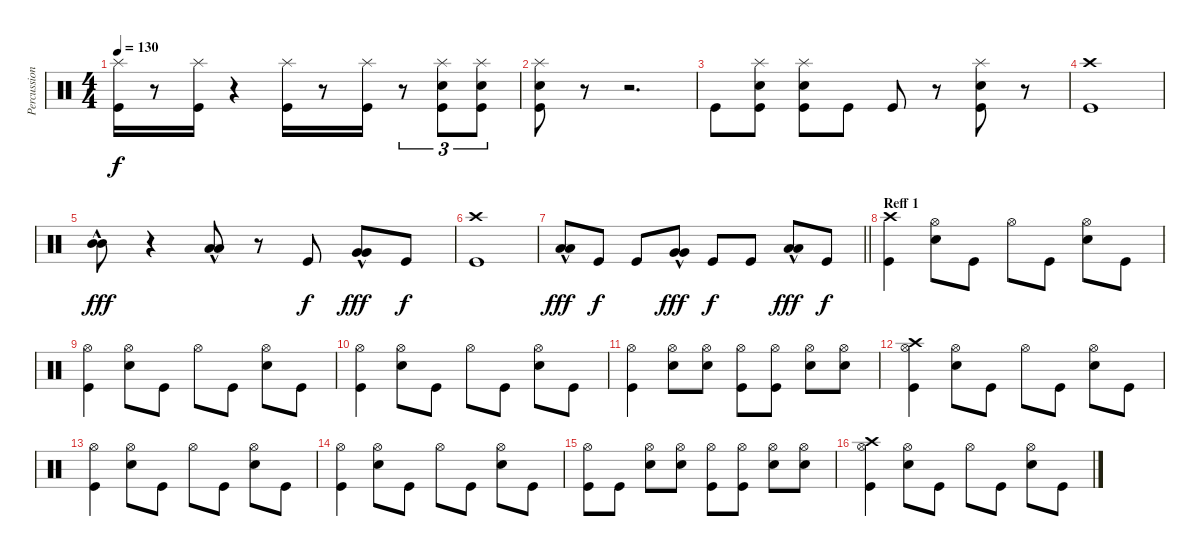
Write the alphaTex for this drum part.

\track ("Percussion 1" "Percussion") {instrument percussion}
\staff {score}
\articulation defaults
\ts (4 4)
\tempo 130
\clef neutral
\ks c
("Splash (hit)" "Kick (hit)").16{dy f} r.8 ("Splash (hit)" "Kick (hit)").16 r.4 ("Splash (hit)" "Kick (hit)").16 r.8 ("Splash (hit)" "Kick (hit)").16 r.8{tu (3 2)} ("Splash (hit)" "Electric Snare (hit)" "Kick (hit)").8{tu (3 2)} ("Splash (hit)" "Electric Snare (hit)" "Kick (hit)").8{tu (3 2)} |
("Splash (hit)" "Electric Snare (hit)" "Kick (hit)").8 r.8 r.2{d} |
"Kick (hit)".8 ("Splash (hit)" "Electric Snare (hit)" "Kick (hit)").8 ("Splash (hit)" "Electric Snare (hit)" "Kick (hit)").8 "Kick (hit)".8 "Kick (hit)".8 r.8 ("Splash (hit)" "Electric Snare (hit)" "Kick (hit)").8 r.8 |
("Crash high (hit)" "Kick (hit)").1 |
("Mid Tom (hit)"{hac} "Mid Tom (hit)").8{bd 60 dy fff} r.4 ("Low Tom (hit)"{hac} "Low Tom (hit)"{hac}).8{bd 60} r.8 "Kick (hit)".8{dy f} ("Very Low Tom (hit)"{hac} "Very Low Tom (hit)"{hac}).8{bd 60 dy fff} "Kick (hit)".8{dy f} |
("Crash high (hit)" "Kick (hit)").1 |
\barLineRight lightlight
("Low Tom (hit)"{hac} "Low Tom (hit)"{hac}).8{bd 60 dy fff} "Kick (hit)".8{dy f} "Kick (hit)".8 ("Very Low Tom (hit)"{hac} "Very Low Tom (hit)"{hac}).8{bd 60 dy fff} "Kick (hit)".8{dy f} "Kick (hit)".8 ("Low Floor Tom (hit)"{hac} "Low Floor Tom (hit)"{hac}).8{bd 60 dy fff} "Kick (hit)".8{dy f} |
\section ("" "Reff 1")
("Crash high (hit)" "Kick (hit)").4 ("Hi-Hat (open)" "Electric Snare (hit)").8 "Kick (hit)".8 "Hi-Hat (open)".8 "Kick (hit)".8 ("Hi-Hat (open)" "Electric Snare (hit)").8 "Kick (hit)".8 |
("Hi-Hat (open)" "Kick (hit)").4 ("Hi-Hat (open)" "Electric Snare (hit)").8 "Kick (hit)".8 "Hi-Hat (open)".8 "Kick (hit)".8 ("Hi-Hat (open)" "Electric Snare (hit)").8 "Kick (hit)".8 |
("Hi-Hat (open)" "Kick (hit)").4 ("Hi-Hat (open)" "Electric Snare (hit)").8 "Kick (hit)".8 "Hi-Hat (open)".8 "Kick (hit)".8 ("Hi-Hat (open)" "Electric Snare (hit)").8 "Kick (hit)".8 |
("Hi-Hat (open)" "Kick (hit)").4 ("Hi-Hat (open)" "Electric Snare (hit)").8 ("Hi-Hat (open)" "Electric Snare (hit)").8 ("Hi-Hat (open)" "Kick (hit)").8 ("Hi-Hat (open)" "Kick (hit)").8 ("Hi-Hat (open)" "Electric Snare (hit)").8 ("Hi-Hat (open)" "Electric Snare (hit)").8 |
("Hi-Hat (open)" "Crash high (hit)" "Kick (hit)").4 ("Hi-Hat (open)" "Electric Snare (hit)").8 "Kick (hit)".8 "Hi-Hat (open)".8 "Kick (hit)".8 ("Hi-Hat (open)" "Electric Snare (hit)").8 "Kick (hit)".8 |
("Hi-Hat (open)" "Kick (hit)").4 ("Hi-Hat (open)" "Electric Snare (hit)").8 "Kick (hit)".8 "Hi-Hat (open)".8 "Kick (hit)".8 ("Hi-Hat (open)" "Electric Snare (hit)").8 "Kick (hit)".8 |
("Hi-Hat (open)" "Kick (hit)").4 ("Hi-Hat (open)" "Electric Snare (hit)").8 "Kick (hit)".8 "Hi-Hat (open)".8 "Kick (hit)".8 ("Hi-Hat (open)" "Electric Snare (hit)").8 "Kick (hit)".8 |
("Hi-Hat (open)" "Kick (hit)").8 "Kick (hit)".8 ("Hi-Hat (open)" "Electric Snare (hit)").8 ("Hi-Hat (open)" "Electric Snare (hit)").8 ("Hi-Hat (open)" "Kick (hit)").8 ("Hi-Hat (open)" "Kick (hit)").8 ("Hi-Hat (open)" "Electric Snare (hit)").8 ("Hi-Hat (open)" "Electric Snare (hit)").8 |
("Hi-Hat (open)" "Crash high (hit)" "Kick (hit)").4 ("Hi-Hat (open)" "Electric Snare (hit)").8 "Kick (hit)".8 "Hi-Hat (open)".8 "Kick (hit)".8 ("Hi-Hat (open)" "Electric Snare (hit)").8 "Kick (hit)".8
